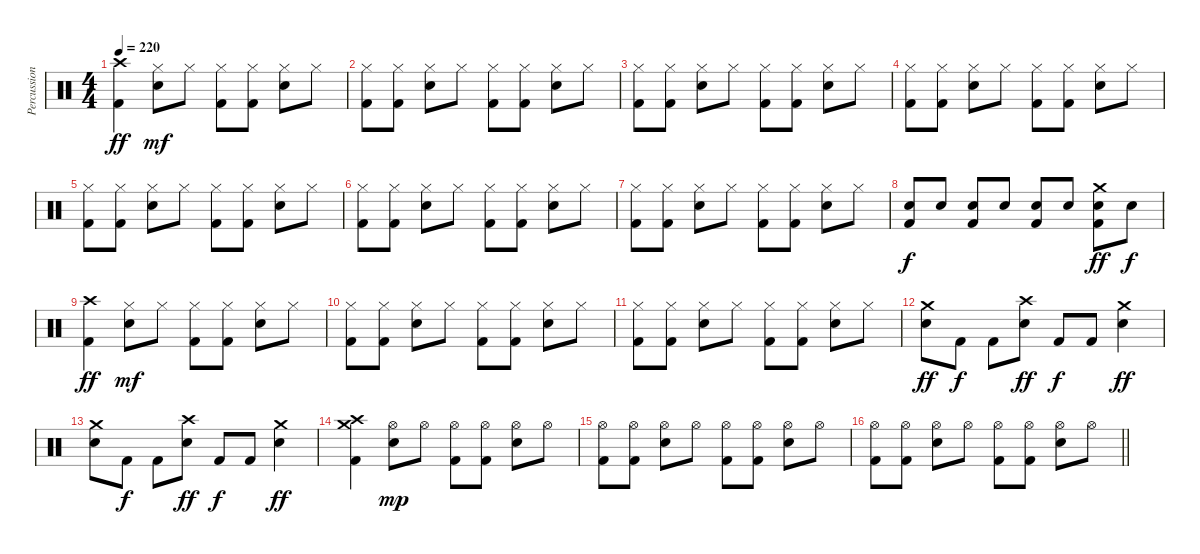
\track ("Percussion" "Percussion") {instrument percussion}
\staff {score}
\articulation defaults
\ts (4 4)
\tempo 220
\clef neutral
\ks c
("Crash high (hit)" "Kick (hit) 2").4{dy ff} ("Hi-Hat (closed)" "Electric Snare (hit)").8{dy mf} "Hi-Hat (closed)".8 ("Hi-Hat (closed)" "Kick (hit) 2").8 ("Hi-Hat (closed)" "Kick (hit) 2").8 ("Hi-Hat (closed)" "Electric Snare (hit)").8 "Hi-Hat (closed)".8 |
("Hi-Hat (closed)" "Kick (hit) 2").8 ("Hi-Hat (closed)" "Kick (hit) 2").8 ("Hi-Hat (closed)" "Electric Snare (hit)").8 "Hi-Hat (closed)".8 ("Hi-Hat (closed)" "Kick (hit) 2").8 ("Hi-Hat (closed)" "Kick (hit) 2").8 ("Hi-Hat (closed)" "Electric Snare (hit)").8 "Hi-Hat (closed)".8 |
("Hi-Hat (closed)" "Kick (hit) 2").8 ("Hi-Hat (closed)" "Kick (hit) 2").8 ("Hi-Hat (closed)" "Electric Snare (hit)").8 "Hi-Hat (closed)".8 ("Hi-Hat (closed)" "Kick (hit) 2").8 ("Hi-Hat (closed)" "Kick (hit) 2").8 ("Hi-Hat (closed)" "Electric Snare (hit)").8 "Hi-Hat (closed)".8 |
("Hi-Hat (closed)" "Kick (hit) 2").8 ("Hi-Hat (closed)" "Kick (hit) 2").8 ("Hi-Hat (closed)" "Electric Snare (hit)").8 "Hi-Hat (closed)".8 ("Hi-Hat (closed)" "Kick (hit) 2").8 ("Hi-Hat (closed)" "Kick (hit) 2").8 ("Hi-Hat (closed)" "Electric Snare (hit)").8 "Hi-Hat (closed)".8 |
("Hi-Hat (closed)" "Kick (hit) 2").8 ("Hi-Hat (closed)" "Kick (hit) 2").8 ("Hi-Hat (closed)" "Electric Snare (hit)").8 "Hi-Hat (closed)".8 ("Hi-Hat (closed)" "Kick (hit) 2").8 ("Hi-Hat (closed)" "Kick (hit) 2").8 ("Hi-Hat (closed)" "Electric Snare (hit)").8 "Hi-Hat (closed)".8 |
("Hi-Hat (closed)" "Kick (hit) 2").8 ("Hi-Hat (closed)" "Kick (hit) 2").8 ("Hi-Hat (closed)" "Electric Snare (hit)").8 "Hi-Hat (closed)".8 ("Hi-Hat (closed)" "Kick (hit) 2").8 ("Hi-Hat (closed)" "Kick (hit) 2").8 ("Hi-Hat (closed)" "Electric Snare (hit)").8 "Hi-Hat (closed)".8 |
("Hi-Hat (closed)" "Kick (hit) 2").8 ("Hi-Hat (closed)" "Kick (hit) 2").8 ("Hi-Hat (closed)" "Electric Snare (hit)").8 "Hi-Hat (closed)".8 ("Hi-Hat (closed)" "Kick (hit) 2").8 ("Hi-Hat (closed)" "Kick (hit) 2").8 ("Hi-Hat (closed)" "Electric Snare (hit)").8 "Hi-Hat (closed)".8 |
("Electric Snare (hit)" "Kick (hit) 2").8{dy f} "Electric Snare (hit)".8 ("Electric Snare (hit)" "Kick (hit) 2").8 "Electric Snare (hit)".8 ("Electric Snare (hit)" "Kick (hit) 2").8 "Electric Snare (hit)".8 ("Crash medium (hit)" "Electric Snare (hit)" "Kick (hit) 2").8{dy ff} "Electric Snare (hit)".8{dy f} |
("Crash high (hit)" "Kick (hit) 2").4{dy ff} ("Hi-Hat (closed)" "Electric Snare (hit)").8{dy mf} "Hi-Hat (closed)".8 ("Hi-Hat (closed)" "Kick (hit) 2").8 ("Hi-Hat (closed)" "Kick (hit) 2").8 ("Hi-Hat (closed)" "Electric Snare (hit)").8 "Hi-Hat (closed)".8 |
("Hi-Hat (closed)" "Kick (hit) 2").8 ("Hi-Hat (closed)" "Kick (hit) 2").8 ("Hi-Hat (closed)" "Electric Snare (hit)").8 "Hi-Hat (closed)".8 ("Hi-Hat (closed)" "Kick (hit) 2").8 ("Hi-Hat (closed)" "Kick (hit) 2").8 ("Hi-Hat (closed)" "Electric Snare (hit)").8 "Hi-Hat (closed)".8 |
("Hi-Hat (closed)" "Kick (hit) 2").8 ("Hi-Hat (closed)" "Kick (hit) 2").8 ("Hi-Hat (closed)" "Electric Snare (hit)").8 "Hi-Hat (closed)".8 ("Hi-Hat (closed)" "Kick (hit) 2").8 ("Hi-Hat (closed)" "Kick (hit) 2").8 ("Hi-Hat (closed)" "Electric Snare (hit)").8 "Hi-Hat (closed)".8 |
("Crash medium (hit)" "Electric Snare (hit)").8{dy ff} "Kick (hit) 2".8{dy f} "Kick (hit) 2".8 ("Crash high (hit)" "Electric Snare (hit)").8{dy ff} "Kick (hit) 2".8{dy f} "Kick (hit) 2".8 ("Crash medium (hit)" "Electric Snare (hit)").4{dy ff} |
("Crash medium (hit)" "Electric Snare (hit)").8 "Kick (hit) 2".8{dy f} "Kick (hit) 2".8 ("Crash high (hit)" "Electric Snare (hit)").8{dy ff} "Kick (hit) 2".8{dy f} "Kick (hit) 2".8 ("Crash medium (hit)" "Electric Snare (hit)").4{dy ff} |
("Crash high (hit)" "Crash medium (hit)" "Kick (hit) 2").4 ("Hi-Hat (open)" "Electric Snare (hit)").8{dy mp} "Hi-Hat (open)".8 ("Hi-Hat (open)" "Kick (hit) 2").8 ("Hi-Hat (open)" "Kick (hit) 2").8 ("Hi-Hat (open)" "Electric Snare (hit)").8 "Hi-Hat (open)".8 |
("Hi-Hat (open)" "Kick (hit) 2").8 ("Hi-Hat (open)" "Kick (hit) 2").8 ("Hi-Hat (open)" "Electric Snare (hit)").8 "Hi-Hat (open)".8 ("Hi-Hat (open)" "Kick (hit) 2").8 ("Hi-Hat (open)" "Kick (hit) 2").8 ("Hi-Hat (open)" "Electric Snare (hit)").8 "Hi-Hat (open)".8 |
\barLineRight lightlight
("Hi-Hat (open)" "Kick (hit) 2").8 ("Hi-Hat (open)" "Kick (hit) 2").8 ("Hi-Hat (open)" "Electric Snare (hit)").8 "Hi-Hat (open)".8 ("Hi-Hat (open)" "Kick (hit) 2").8 ("Hi-Hat (open)" "Kick (hit) 2").8 ("Hi-Hat (open)" "Electric Snare (hit)").8 "Hi-Hat (open)".8
